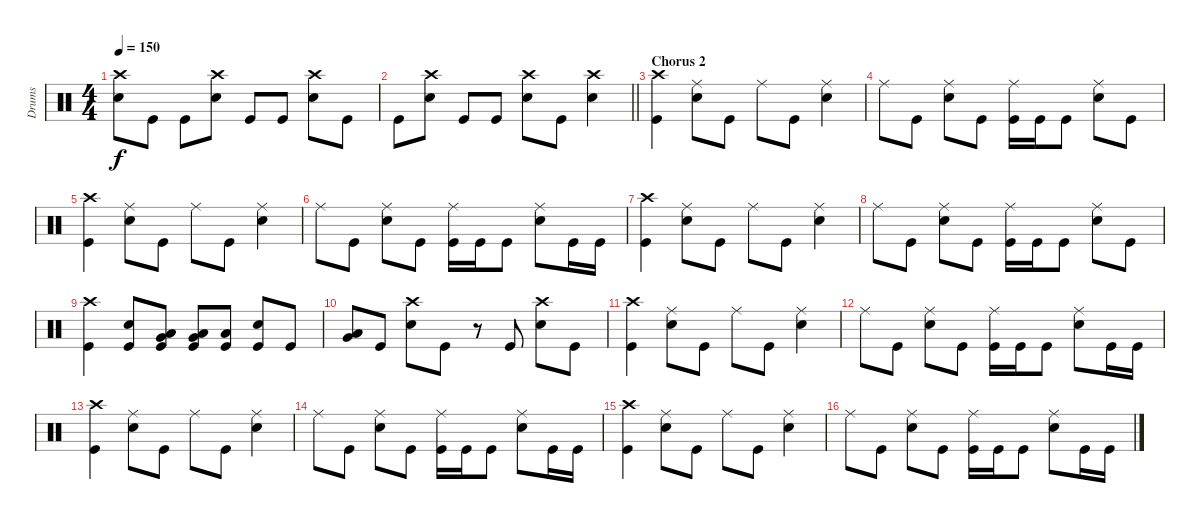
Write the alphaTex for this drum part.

\track ("Drums" "Drums") {instrument percussion}
\staff {score}
\articulation defaults
\ts (4 4)
\tempo 150
\clef neutral
\ks c
("Crash high (hit)" "Snare (hit) 2").8{dy f} "Kick (hit)".8 "Kick (hit)".8 ("Snare (hit) 2" "Crash high (hit)").8 "Kick (hit)".8 "Kick (hit)".8 ("Crash high (hit)" "Snare (hit) 2").8 "Kick (hit)".8 |
\barLineRight lightlight "Kick (hit)".8
("Snare (hit) 2" "Crash high (hit)").8 "Kick (hit)".8 "Kick (hit)".8 ("Crash high (hit)" "Snare (hit) 2").8 "Kick (hit)".8 ("Snare (hit) 2" "Crash high (hit)").4 |
\section ("" "Chorus 2")
("Crash high (hit)" "Kick (hit)").4 ("Snare (hit) 2" "Ride (middle)").8 "Kick (hit)".8 "Ride (middle)".8 "Kick (hit)".8 ("Snare (hit) 2" "Ride (middle)").4 |
"Ride (middle)".8 "Kick (hit)".8 ("Snare (hit) 2" "Ride (middle)").8 "Kick (hit)".8 ("Ride (middle)" "Kick (hit)").16 "Kick (hit)".16 "Kick (hit)".8 ("Ride (middle)" "Snare (hit) 2").8 "Kick (hit)".8 |
("Crash high (hit)" "Kick (hit)").4 ("Snare (hit) 2" "Ride (middle)").8 "Kick (hit)".8 "Ride (middle)".8 "Kick (hit)".8 ("Snare (hit) 2" "Ride (middle)").4 |
"Ride (middle)".8 "Kick (hit)".8 ("Snare (hit) 2" "Ride (middle)").8 "Kick (hit)".8 ("Ride (middle)" "Kick (hit)").16 "Kick (hit)".16 "Kick (hit)".8 ("Ride (middle)" "Snare (hit) 2").8 "Kick (hit)".16 "Kick (hit)".16 |
("Crash high (hit)" "Kick (hit)").4 ("Snare (hit) 2" "Ride (middle)").8 "Kick (hit)".8 "Ride (middle)".8 "Kick (hit)".8 ("Snare (hit) 2" "Ride (middle)").4 |
"Ride (middle)".8 "Kick (hit)".8 ("Snare (hit) 2" "Ride (middle)").8 "Kick (hit)".8 ("Ride (middle)" "Kick (hit)").16 "Kick (hit)".16 "Kick (hit)".8 ("Ride (middle)" "Snare (hit) 2").8 "Kick (hit)".8 |
("Crash high (hit)" "Kick (hit)").4 ("Snare (hit) 2" "Kick (hit)").8 ("Very Low Tom (hit)" "Low Tom (hit)" "Kick (hit)").8 ("Low Floor Tom (hit)" "Very Low Tom (hit)" "Kick (hit)").8 ("Low Floor Tom (hit)" "Kick (hit)").8 ("Snare (hit) 2" "Kick (hit)").8 "Kick (hit)".8 |
("Low Tom (hit)" "Very Low Tom (hit)").8 "Kick (hit)".8 ("Snare (hit) 2" "Crash high (hit)").8 "Kick (hit)".8 r.8 "Kick (hit)".8 ("Snare (hit) 2" "Crash high (hit)").8 "Kick (hit)".8 |
("Crash high (hit)" "Kick (hit)").4 ("Snare (hit) 2" "Ride (middle)").8 "Kick (hit)".8 "Ride (middle)".8 "Kick (hit)".8 ("Snare (hit) 2" "Ride (middle)").4 |
"Ride (middle)".8 "Kick (hit)".8 ("Snare (hit) 2" "Ride (middle)").8 "Kick (hit)".8 ("Ride (middle)" "Kick (hit)").16 "Kick (hit)".16 "Kick (hit)".8 ("Ride (middle)" "Snare (hit) 2").8 "Kick (hit)".16 "Kick (hit)".16 |
("Crash high (hit)" "Kick (hit)").4 ("Snare (hit) 2" "Ride (middle)").8 "Kick (hit)".8 "Ride (middle)".8 "Kick (hit)".8 ("Snare (hit) 2" "Ride (middle)").4 |
"Ride (middle)".8 "Kick (hit)".8 ("Snare (hit) 2" "Ride (middle)").8 "Kick (hit)".8 ("Ride (middle)" "Kick (hit)").16 "Kick (hit)".16 "Kick (hit)".8 ("Ride (middle)" "Snare (hit) 2").8 "Kick (hit)".16 "Kick (hit)".16 |
("Crash high (hit)" "Kick (hit)").4 ("Snare (hit) 2" "Ride (middle)").8 "Kick (hit)".8 "Ride (middle)".8 "Kick (hit)".8 ("Snare (hit) 2" "Ride (middle)").4 |
"Ride (middle)".8 "Kick (hit)".8 ("Snare (hit) 2" "Ride (middle)").8 "Kick (hit)".8 ("Ride (middle)" "Kick (hit)").16 "Kick (hit)".16 "Kick (hit)".8 ("Ride (middle)" "Snare (hit) 2").8 "Kick (hit)".16 "Kick (hit)".16
